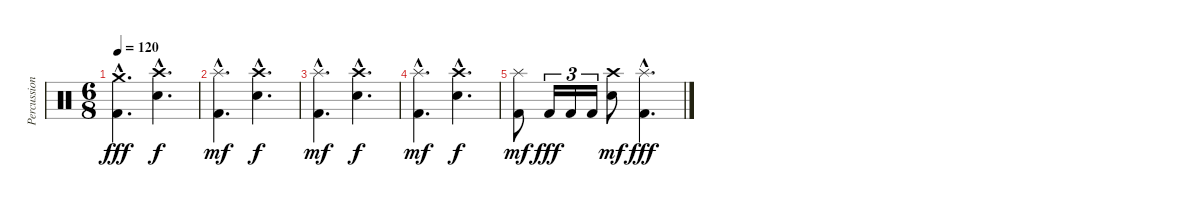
\track ("Percussion" "Percussion") {instrument percussion}
\staff {score}
\articulation defaults
\ts (6 8)
\tempo 120
\clef neutral
\ks c
("Crash medium (hit)"{hac} "Kick (hit) 2"{hac}).4{d dy fff} ("Crash high (hit)"{hac} "Electric Snare (hit)"{hac}).4{d dy f} |
("Splash (hit)"{hac} "Kick (hit) 2"{hac}).4{d dy mf} ("Crash high (hit)"{hac} "Electric Snare (hit)"{hac}).4{d dy f} |
("Splash (hit)"{hac} "Kick (hit) 2"{hac}).4{d dy mf} ("Crash high (hit)"{hac} "Electric Snare (hit)"{hac}).4{d dy f} |
("Splash (hit)"{hac} "Kick (hit) 2"{hac}).4{d dy mf} ("Crash high (hit)"{hac} "Electric Snare (hit)"{hac}).4{d dy f} |
("Splash (hit)" "Kick (hit) 2").8{dy mf} "Kick (hit) 2".16{tu (3 2) dy fff} "Kick (hit) 2".16{tu (3 2)} "Kick (hit) 2".16{tu (3 2)} ("Crash high (hit)" "Electric Snare (hit)").8{dy mf} ("Splash (hit)"{hac} "Kick (hit) 2"{hac}).4{d dy fff}
